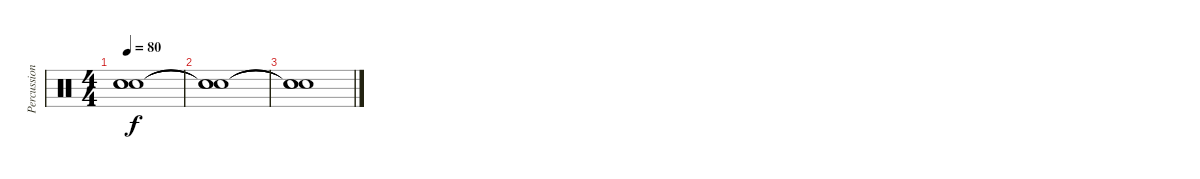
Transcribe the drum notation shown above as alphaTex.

\track ("Percussion" "Percussion") {instrument percussion}
\staff {score}
\articulation defaults
\ts (4 4)
\tempo 80
\clef neutral
\ks c
("Snare (hit)"{t} "Snare (hit)"{t} "Snare (hit)"{t}).1{dy f} |
("Snare (hit)"{t} "Snare (hit)"{t} "Snare (hit)"{t}).1 |
("Snare (hit)"{t} "Snare (hit)"{t} "Snare (hit)"{t}).1
